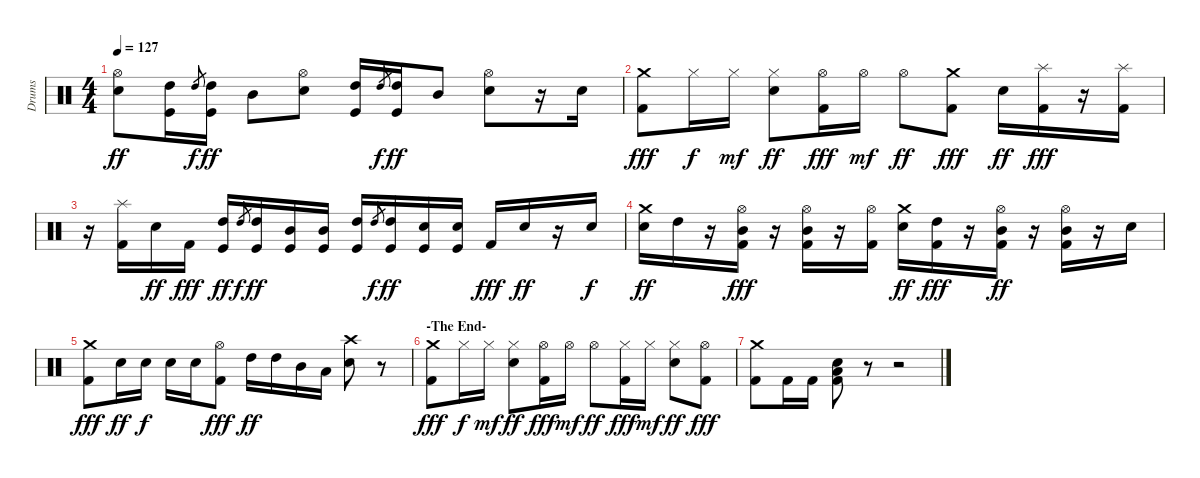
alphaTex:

\track ("Drums" "Drums") {instrument percussion}
\staff {score}
\articulation defaults
\ts (4 4)
\tempo 127
\clef neutral
\ks c
("Hi-Hat (open)" "Snare (hit) 2").8{dy ff} ("High Tom (hit)" "Kick (hit)").16 "High Tom (hit)".8{gr dy f} ("High Tom (hit)" "Kick (hit)").16{dy ff} "Mid Tom (hit)".8 ("Hi-Hat (open)" "Snare (hit) 2").8 ("High Tom (hit)" "Kick (hit)").16 "High Tom (hit)".8{gr dy f} ("High Tom (hit)" "Kick (hit)").16{dy ff} "Mid Tom (hit)".8 ("Hi-Hat (open)" "Snare (hit) 2").8 r.16 "Snare (hit) 2".16 |
("Crash medium (hit)" "Kick (hit) 2").8{dy fff} "Hi-Hat (closed)".16{dy f} "Hi-Hat (closed)".16{dy mf} ("Hi-Hat (closed)" "Snare (hit) 2").8{dy ff} ("Hi-Hat (open)" "Kick (hit) 2").16{dy fff} "Hi-Hat (open)".16{dy mf} "Hi-Hat (open)".8{dy ff} ("Crash medium (hit)" "Kick (hit) 2").8{dy fff} "Snare (hit) 2".16{dy ff} ("Splash (hit)" "Kick (hit) 2").16{dy fff} r.16 ("Splash (hit)" "Kick (hit) 2").16 |
r.16 ("Splash (hit)" "Kick (hit) 2").16 "Snare (hit) 2".16{dy ff} "Kick (hit) 2".16{dy fff} ("High Tom (hit)" "Kick (hit)").16{dy ff} "High Tom (hit)".8{gr dy f} ("High Tom (hit)" "Kick (hit)").16{dy ff} ("Mid Tom (hit)" "Kick (hit)").16 ("Mid Tom (hit)" "Kick (hit)").16 ("High Tom (hit)" "Kick (hit)").16 "High Tom (hit)".8{gr dy f} ("High Tom (hit)" "Kick (hit)").16{dy ff} ("Snare (hit) 2" "Kick (hit)").16 ("Snare (hit) 2" "Kick (hit)").16 "Kick (hit) 2".16{dy fff} "Snare (hit) 2".16{dy ff} r.16 "Snare (hit) 2".16{dy f} |
("Crash medium (hit)" "Snare (hit) 2").16{dy ff} "High Tom (hit)".16 r.16 ("Hi-Hat (open)" "Mid Tom (hit)" "Kick (hit) 2").16{dy fff} r.16 ("Hi-Hat (open)" "Mid Tom (hit)" "Kick (hit) 2").16 r.16 ("Hi-Hat (open)" "Kick (hit) 2").16 ("Crash medium (hit)" "Snare (hit) 2").16{dy ff} ("High Tom (hit)" "Kick (hit) 2").16{dy fff} r.16 ("Hi-Hat (open)" "Mid Tom (hit)" "Kick (hit) 2").16{dy ff} r.16 ("Hi-Hat (open)" "Mid Tom (hit)" "Kick (hit) 2").16 r.16 "Snare (hit) 2".16 |
("Crash medium (hit)" "Kick (hit) 2").8{dy fff} "Snare (hit) 2".16{dy ff} "Snare (hit) 2".16{dy f} "Snare (hit) 2".16 "Snare (hit) 2".16 ("Hi-Hat (open)" "Kick (hit) 2").8{dy fff} "High Tom (hit)".16{dy ff} "High Tom (hit)".16 "Mid Tom (hit)".16 "Low Tom (hit)".16 ("Crash high (hit)" "Snare (hit) 2").8 r.8 |
\section ("" "-The End-")
("Crash medium (hit)" "Kick (hit) 2").8{dy fff} "Hi-Hat (closed)".16{dy f} "Hi-Hat (closed)".16{dy mf} ("Hi-Hat (closed)" "Snare (hit) 2").8{dy ff} ("Hi-Hat (open)" "Kick (hit) 2").16{dy fff} "Hi-Hat (open)".16{dy mf} "Hi-Hat (open)".8{dy ff} ("Hi-Hat (closed)" "Kick (hit) 2").16{dy fff} "Hi-Hat (closed)".16{dy mf} ("Hi-Hat (closed)" "Snare (hit) 2").8{dy ff} ("Hi-Hat (open)" "Kick (hit) 2").8{dy fff} |
("Crash medium (hit)" "Kick (hit) 2").8 "Kick (hit) 2".16 "Kick (hit) 2".16 ("Snare (hit) 2" "Low Tom (hit)" "Kick (hit) 2").8 r.8 r.2
